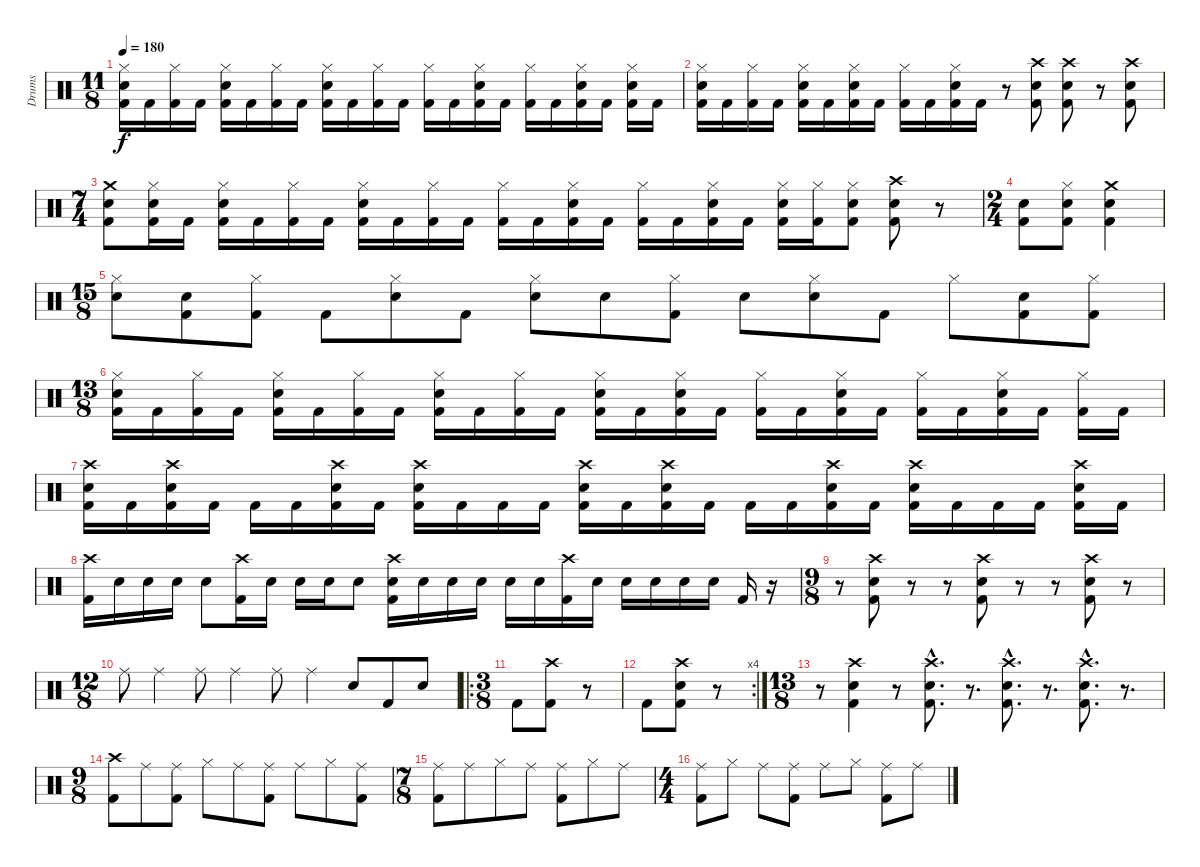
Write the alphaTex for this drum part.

\track ("Drums" "Drums") {instrument percussion}
\staff {score}
\articulation defaults
\ts (11 8)
\tempo 180
\clef neutral
\ks c
("Hi-Hat (closed)" "Electric Snare (hit)" "Kick (hit) 2").16{dy f} "Kick (hit) 2".16 ("Hi-Hat (closed)" "Kick (hit) 2").16 "Kick (hit) 2".16 ("Hi-Hat (closed)" "Electric Snare (hit)" "Kick (hit) 2").16 "Kick (hit) 2".16 ("Hi-Hat (closed)" "Kick (hit) 2").16 "Kick (hit) 2".16 ("Hi-Hat (closed)" "Electric Snare (hit)" "Kick (hit) 2").16 "Kick (hit) 2".16 ("Hi-Hat (closed)" "Kick (hit) 2").16 "Kick (hit) 2".16 ("Hi-Hat (closed)" "Kick (hit) 2").16 "Kick (hit) 2".16 ("Hi-Hat (closed)" "Electric Snare (hit)" "Kick (hit) 2").16 "Kick (hit) 2".16 ("Hi-Hat (closed)" "Kick (hit) 2").16 "Kick (hit) 2".16 ("Hi-Hat (closed)" "Electric Snare (hit)" "Kick (hit) 2").16 "Kick (hit) 2".16 ("Hi-Hat (closed)" "Electric Snare (hit)" "Kick (hit) 2").16 "Kick (hit) 2".16 |
("Hi-Hat (closed)" "Electric Snare (hit)" "Kick (hit) 2").16 "Kick (hit) 2".16 ("Hi-Hat (closed)" "Kick (hit) 2").16 "Kick (hit) 2".16 ("Hi-Hat (closed)" "Electric Snare (hit)" "Kick (hit) 2").16 "Kick (hit) 2".16 ("Hi-Hat (closed)" "Electric Snare (hit)" "Kick (hit) 2").16 "Kick (hit) 2".16 ("Hi-Hat (closed)" "Kick (hit) 2").16 "Kick (hit) 2".16 ("Hi-Hat (closed)" "Electric Snare (hit)" "Kick (hit) 2").16 "Kick (hit) 2".16 r.8 ("Crash high (hit)" "Electric Snare (hit)" "Kick (hit) 2").8 ("Crash high (hit)" "Electric Snare (hit)" "Kick (hit) 2").8 r.8 ("Crash high (hit)" "Electric Snare (hit)" "Kick (hit) 2").8 |
\ts (7 4)
("Crash medium (hit)" "Electric Snare (hit)" "Kick (hit) 2").8 ("Hi-Hat (closed)" "Electric Snare (hit)" "Kick (hit) 2").16 "Kick (hit) 2".16 ("Hi-Hat (closed)" "Electric Snare (hit)" "Kick (hit) 2").16 "Kick (hit) 2".16 ("Hi-Hat (closed)" "Kick (hit) 2").16 "Kick (hit) 2".16 ("Hi-Hat (closed)" "Electric Snare (hit)" "Kick (hit) 2").16 "Kick (hit) 2".16 ("Hi-Hat (closed)" "Kick (hit) 2").16 "Kick (hit) 2".16 ("Hi-Hat (closed)" "Kick (hit) 2").16 "Kick (hit) 2".16 ("Hi-Hat (closed)" "Electric Snare (hit)" "Kick (hit) 2").16 "Kick (hit) 2".16 ("Hi-Hat (closed)" "Kick (hit) 2").16 "Kick (hit) 2".16 ("Hi-Hat (closed)" "Electric Snare (hit)" "Kick (hit) 2").16 "Kick (hit) 2".16 ("Hi-Hat (closed)" "Electric Snare (hit)" "Kick (hit) 2").16 ("Hi-Hat (closed)" "Kick (hit) 2").16 ("Hi-Hat (closed)" "Electric Snare (hit)" "Kick (hit) 2").8 ("Crash high (hit)" "Electric Snare (hit)" "Kick (hit) 2").8 r.8 |
\ts (2 4)
("Electric Snare (hit)" "Kick (hit) 2").8 ("Hi-Hat (closed)" "Electric Snare (hit)" "Kick (hit) 2").8 ("Crash medium (hit)" "Electric Snare (hit)" "Kick (hit) 2").4 |
\ts (15 8)
("Hi-Hat (closed)" "Electric Snare (hit)").8 ("Electric Snare (hit)" "Kick (hit) 2").8 ("Hi-Hat (closed)" "Kick (hit) 2").8 "Kick (hit) 2".8 ("Hi-Hat (closed)" "Electric Snare (hit)").8 "Kick (hit) 2".8 ("Hi-Hat (closed)" "Electric Snare (hit)").8 "Electric Snare (hit)".8 ("Hi-Hat (closed)" "Kick (hit) 2").8 "Electric Snare (hit)".8 ("Hi-Hat (closed)" "Electric Snare (hit)").8 "Kick (hit) 2".8 "Hi-Hat (closed)".8 ("Electric Snare (hit)" "Kick (hit) 2").8 ("Hi-Hat (closed)" "Kick (hit) 2").8 |
\ts (13 8)
("Hi-Hat (closed)" "Electric Snare (hit)" "Kick (hit) 2").16 "Kick (hit) 2".16 ("Hi-Hat (closed)" "Kick (hit) 2").16 "Kick (hit) 2".16 ("Hi-Hat (closed)" "Electric Snare (hit)" "Kick (hit) 2").16 "Kick (hit) 2".16 ("Hi-Hat (closed)" "Kick (hit) 2").16 "Kick (hit) 2".16 ("Hi-Hat (closed)" "Electric Snare (hit)" "Kick (hit) 2").16 "Kick (hit) 2".16 ("Hi-Hat (closed)" "Kick (hit) 2").16 "Kick (hit) 2".16 ("Hi-Hat (closed)" "Electric Snare (hit)" "Kick (hit) 2").16 "Kick (hit) 2".16 ("Hi-Hat (closed)" "Electric Snare (hit)" "Kick (hit) 2").16 "Kick (hit) 2".16 ("Hi-Hat (closed)" "Kick (hit) 2").16 "Kick (hit) 2".16 ("Hi-Hat (closed)" "Electric Snare (hit)" "Kick (hit) 2").16 "Kick (hit) 2".16 ("Hi-Hat (closed)" "Kick (hit) 2").16 "Kick (hit) 2".16 ("Hi-Hat (closed)" "Electric Snare (hit)" "Kick (hit) 2").16 "Kick (hit) 2".16 ("Hi-Hat (closed)" "Kick (hit) 2").16 "Kick (hit) 2".16 |
("Crash high (hit)" "Electric Snare (hit)" "Kick (hit) 2").16 "Kick (hit) 2".16 ("Crash high (hit)" "Electric Snare (hit)" "Kick (hit) 2").16 "Kick (hit) 2".16 "Kick (hit) 2".16 "Kick (hit) 2".16 ("Crash high (hit)" "Electric Snare (hit)" "Kick (hit) 2").16 "Kick (hit) 2".16 ("Crash high (hit)" "Electric Snare (hit)" "Kick (hit) 2").16 "Kick (hit) 2".16 "Kick (hit) 2".16 "Kick (hit) 2".16 ("Crash high (hit)" "Electric Snare (hit)" "Kick (hit) 2").16 "Kick (hit) 2".16 ("Crash high (hit)" "Electric Snare (hit)" "Kick (hit) 2").16 "Kick (hit) 2".16 "Kick (hit) 2".16 "Kick (hit) 2".16 ("Crash high (hit)" "Electric Snare (hit)" "Kick (hit) 2").16 "Kick (hit) 2".16 ("Crash high (hit)" "Electric Snare (hit)" "Kick (hit) 2").16 "Kick (hit) 2".16 "Kick (hit) 2".16 "Kick (hit) 2".16 ("Crash high (hit)" "Electric Snare (hit)" "Kick (hit) 2").16 "Kick (hit) 2".16 |
("Crash high (hit)" "Kick (hit) 2").16 "Electric Snare (hit)".16 "Electric Snare (hit)".16 "Electric Snare (hit)".16 "Electric Snare (hit)".8 ("Crash high (hit)" "Kick (hit) 2").16 "Electric Snare (hit)".16 "Electric Snare (hit)".16 "Electric Snare (hit)".16 "Electric Snare (hit)".8 ("Crash high (hit)" "Electric Snare (hit)" "Kick (hit) 2").16 "Electric Snare (hit)".16 "Electric Snare (hit)".16 "Electric Snare (hit)".16 "Electric Snare (hit)".16 "Electric Snare (hit)".16 ("Crash high (hit)" "Kick (hit) 2").16 "Electric Snare (hit)".16 "Electric Snare (hit)".16 "Electric Snare (hit)".16 "Electric Snare (hit)".16 "Electric Snare (hit)".16 "Kick (hit) 2".16 r.16 |
\ts (9 8)
r.8 ("Crash high (hit)" "Electric Snare (hit)" "Kick (hit) 2").8 r.8 r.8 ("Crash high (hit)" "Electric Snare (hit)" "Kick (hit) 2").8 r.8 r.8 ("Crash high (hit)" "Electric Snare (hit)" "Kick (hit) 2").8 r.8 |
\ts (12 8)
"Ride (middle)".8 "Ride (middle)".4 "Ride (middle)".8 "Ride (middle)".4 "Ride (middle)".8 "Ride (middle)".4 "Electric Snare (hit)".8 "Kick (hit) 2".8 "Electric Snare (hit)".8 |
\ro
\ts (3 8)
"Kick (hit) 2".8 ("Crash high (hit)" "Kick (hit) 2").8 r.8 |
\rc 4 "Kick (hit) 2".8
("Crash high (hit)" "Electric Snare (hit)" "Kick (hit) 2").8 r.8 |
\ts (13 8)
r.8 ("Crash high (hit)" "Electric Snare (hit)" "Kick (hit) 2").4 r.8 ("Crash high (hit)"{hac} "Electric Snare (hit)"{hac} "Kick (hit) 2"{hac}).8{d} r.8{d} ("Crash high (hit)"{hac} "Electric Snare (hit)"{hac} "Kick (hit) 2"{hac}).8{d} r.8{d} ("Crash high (hit)"{hac} "Electric Snare (hit)"{hac} "Kick (hit) 2"{hac}).8{d} r.8{d} |
\ts (9 8)
("Crash high (hit)" "Kick (hit) 2").8 "Ride (middle)".8 ("Ride (middle)" "Kick (hit) 2").8 "Hi-Hat (closed)".8 "Ride (middle)".8 ("Ride (middle)" "Kick (hit) 2").8 "Ride (middle)".8 "Hi-Hat (closed)".8 ("Ride (middle)" "Kick (hit) 2").8 |
\ts (7 8)
("Ride (middle)" "Kick (hit) 2").8 "Ride (middle)".8 "Hi-Hat (closed)".8 "Ride (middle)".8 ("Ride (middle)" "Kick (hit) 2").8 "Hi-Hat (closed)".8 "Ride (middle)".8 |
\ts (4 4)
("Ride (middle)" "Kick (hit) 2").8 "Hi-Hat (closed)".8 "Ride (middle)".8 ("Ride (middle)" "Kick (hit) 2").8 "Ride (middle)".8 "Hi-Hat (closed)".8 ("Ride (middle)" "Kick (hit) 2").8 "Ride (middle)".8
